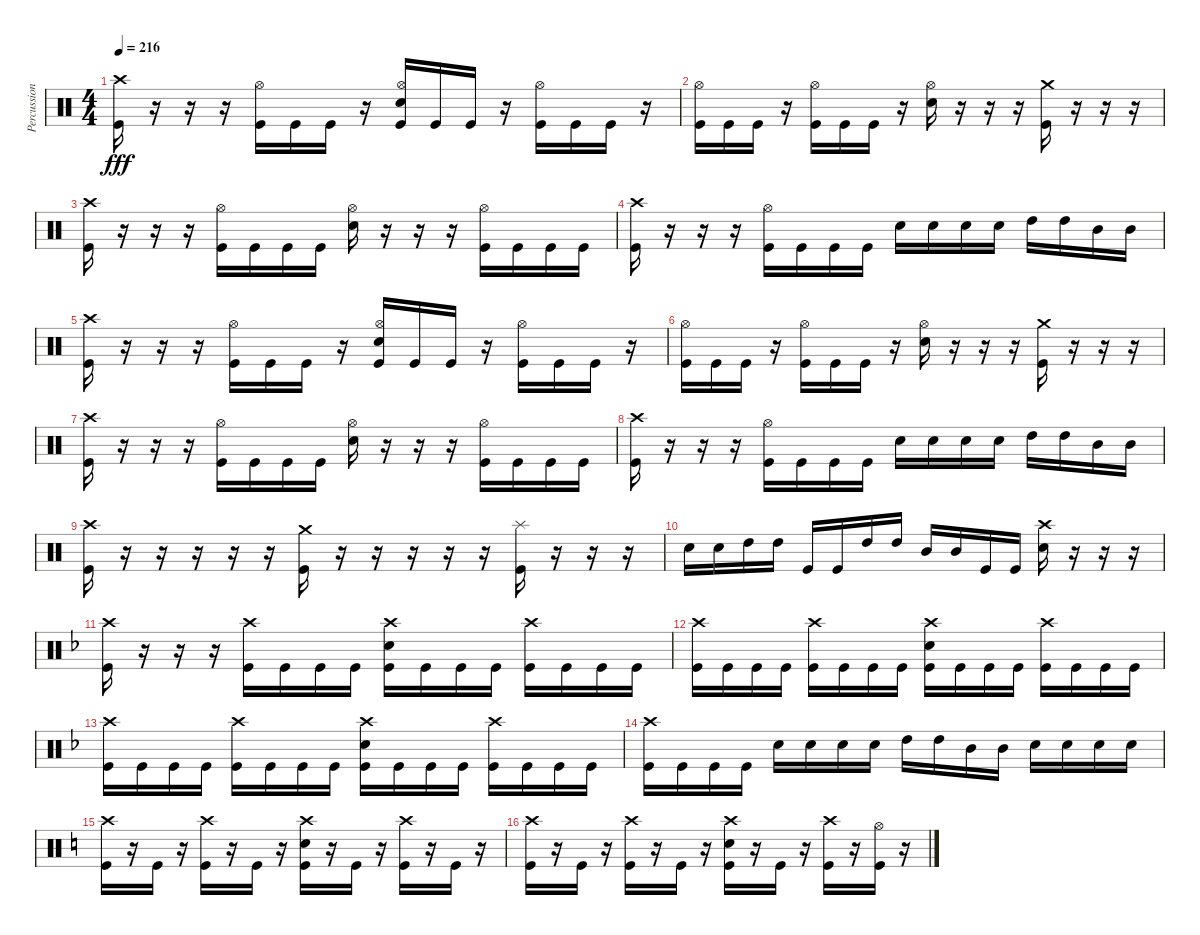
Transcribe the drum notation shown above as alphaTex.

\track ("Percussion" "Percussion") {instrument percussion}
\staff {score}
\articulation defaults
\ts (4 4)
\tempo 216
\clef neutral
\ks c
("Crash high (hit)" "Kick (hit)").16{dy fff} r.16 r.16 r.16 ("Hi-Hat (open)" "Kick (hit)").16 "Kick (hit)".16 "Kick (hit)".16 r.16 ("Hi-Hat (open)" "Electric Snare (hit)" "Kick (hit)").16 "Kick (hit)".16 "Kick (hit)".16 r.16 ("Hi-Hat (open)" "Kick (hit)").16 "Kick (hit)".16 "Kick (hit)".16 r.16 |
("Hi-Hat (open)" "Kick (hit)").16 "Kick (hit)".16 "Kick (hit)".16 r.16 ("Hi-Hat (open)" "Kick (hit)").16 "Kick (hit)".16 "Kick (hit)".16 r.16 ("Hi-Hat (open)" "Electric Snare (hit)").16 r.16 r.16 r.16 ("Crash medium (hit)" "Kick (hit)").16 r.16 r.16 r.16 |
("Crash high (hit)" "Kick (hit)").16 r.16 r.16 r.16 ("Hi-Hat (open)" "Kick (hit)").16 "Kick (hit)".16 "Kick (hit)".16 "Kick (hit)".16 ("Hi-Hat (open)" "Electric Snare (hit)").16 r.16 r.16 r.16 ("Hi-Hat (open)" "Kick (hit)").16 "Kick (hit)".16 "Kick (hit)".16 "Kick (hit)".16 |
("Crash high (hit)" "Kick (hit)").16 r.16 r.16 r.16 ("Hi-Hat (open)" "Kick (hit)").16 "Kick (hit)".16 "Kick (hit)".16 "Kick (hit)".16 "Electric Snare (hit)".16 "Electric Snare (hit)".16 "Electric Snare (hit)".16 "Electric Snare (hit)".16 "High Tom (hit)".16 "High Tom (hit)".16 "Mid Tom (hit)".16 "Mid Tom (hit)".16 |
("Crash high (hit)" "Kick (hit)").16 r.16 r.16 r.16 ("Hi-Hat (open)" "Kick (hit)").16 "Kick (hit)".16 "Kick (hit)".16 r.16 ("Hi-Hat (open)" "Electric Snare (hit)" "Kick (hit)").16 "Kick (hit)".16 "Kick (hit)".16 r.16 ("Hi-Hat (open)" "Kick (hit)").16 "Kick (hit)".16 "Kick (hit)".16 r.16 |
("Hi-Hat (open)" "Kick (hit)").16 "Kick (hit)".16 "Kick (hit)".16 r.16 ("Hi-Hat (open)" "Kick (hit)").16 "Kick (hit)".16 "Kick (hit)".16 r.16 ("Hi-Hat (open)" "Electric Snare (hit)").16 r.16 r.16 r.16 ("Crash medium (hit)" "Kick (hit)").16 r.16 r.16 r.16 |
("Crash high (hit)" "Kick (hit)").16 r.16 r.16 r.16 ("Hi-Hat (open)" "Kick (hit)").16 "Kick (hit)".16 "Kick (hit)".16 "Kick (hit)".16 ("Hi-Hat (open)" "Electric Snare (hit)").16 r.16 r.16 r.16 ("Hi-Hat (open)" "Kick (hit)").16 "Kick (hit)".16 "Kick (hit)".16 "Kick (hit)".16 |
("Crash high (hit)" "Kick (hit)").16 r.16 r.16 r.16 ("Hi-Hat (open)" "Kick (hit)").16 "Kick (hit)".16 "Kick (hit)".16 "Kick (hit)".16 "Electric Snare (hit)".16 "Electric Snare (hit)".16 "Electric Snare (hit)".16 "Electric Snare (hit)".16 "High Tom (hit)".16 "High Tom (hit)".16 "Mid Tom (hit)".16 "Mid Tom (hit)".16 |
("Crash high (hit)" "Kick (hit)").16 r.16 r.16 r.16 r.16 r.16 ("Crash medium (hit)" "Kick (hit)").16 r.16 r.16 r.16 r.16 r.16 ("Splash (hit)" "Kick (hit)").16 r.16 r.16 r.16 |
"Electric Snare (hit)".16 "Electric Snare (hit)".16 "High Tom (hit)".16 "High Tom (hit)".16 "Kick (hit)".16 "Kick (hit)".16 "High Tom (hit)".16 "High Tom (hit)".16 "Mid Tom (hit)".16 "Mid Tom (hit)".16 "Kick (hit)".16 "Kick (hit)".16 ("Crash high (hit)" "Electric Snare (hit)").16 r.16 r.16 r.16 |
\ks f
("Crash high (hit)" "Kick (hit)").16 r.16 r.16 r.16 ("Crash high (hit)" "Kick (hit)").16 "Kick (hit)".16 "Kick (hit)".16 "Kick (hit)".16 ("Crash high (hit)" "Electric Snare (hit)" "Kick (hit)").16 "Kick (hit)".16 "Kick (hit)".16 "Kick (hit)".16 ("Crash high (hit)" "Kick (hit)").16 "Kick (hit)".16 "Kick (hit)".16 "Kick (hit)".16 |
("Crash high (hit)" "Kick (hit)").16 "Kick (hit)".16 "Kick (hit)".16 "Kick (hit)".16 ("Crash high (hit)" "Kick (hit)").16 "Kick (hit)".16 "Kick (hit)".16 "Kick (hit)".16 ("Crash high (hit)" "Electric Snare (hit)" "Kick (hit)").16 "Kick (hit)".16 "Kick (hit)".16 "Kick (hit)".16 ("Crash high (hit)" "Kick (hit)").16 "Kick (hit)".16 "Kick (hit)".16 "Kick (hit)".16 |
("Crash high (hit)" "Kick (hit)").16 "Kick (hit)".16 "Kick (hit)".16 "Kick (hit)".16 ("Crash high (hit)" "Kick (hit)").16 "Kick (hit)".16 "Kick (hit)".16 "Kick (hit)".16 ("Crash high (hit)" "Electric Snare (hit)" "Kick (hit)").16 "Kick (hit)".16 "Kick (hit)".16 "Kick (hit)".16 ("Crash high (hit)" "Kick (hit)").16 "Kick (hit)".16 "Kick (hit)".16 "Kick (hit)".16 |
("Crash high (hit)" "Kick (hit)").16 "Kick (hit)".16 "Kick (hit)".16 "Kick (hit)".16 "Electric Snare (hit)".16 "Electric Snare (hit)".16 "Electric Snare (hit)".16 "Electric Snare (hit)".16 "High Tom (hit)".16 "High Tom (hit)".16 "Mid Tom (hit)".16 "Mid Tom (hit)".16 "Electric Snare (hit)".16 "Electric Snare (hit)".16 "Electric Snare (hit)".16 "Electric Snare (hit)".16 |
\ks c
("Crash high (hit)" "Kick (hit)").16 r.16 "Kick (hit)".16 r.16 ("Crash high (hit)" "Kick (hit)").16 r.16 "Kick (hit)".16 r.16 ("Crash high (hit)" "Electric Snare (hit)" "Kick (hit)").16 r.16 "Kick (hit)".16 r.16 ("Crash high (hit)" "Kick (hit)").16 r.16 "Kick (hit)".16 r.16 |
("Crash high (hit)" "Kick (hit)").16 r.16 "Kick (hit)".16 r.16 ("Crash high (hit)" "Kick (hit)").16 r.16 "Kick (hit)".16 r.16 ("Crash high (hit)" "Electric Snare (hit)" "Kick (hit)").16 r.16 "Kick (hit)".16 r.16 ("Crash high (hit)" "Kick (hit)").16 r.16 ("Hi-Hat (open)" "Kick (hit)").16 r.16
